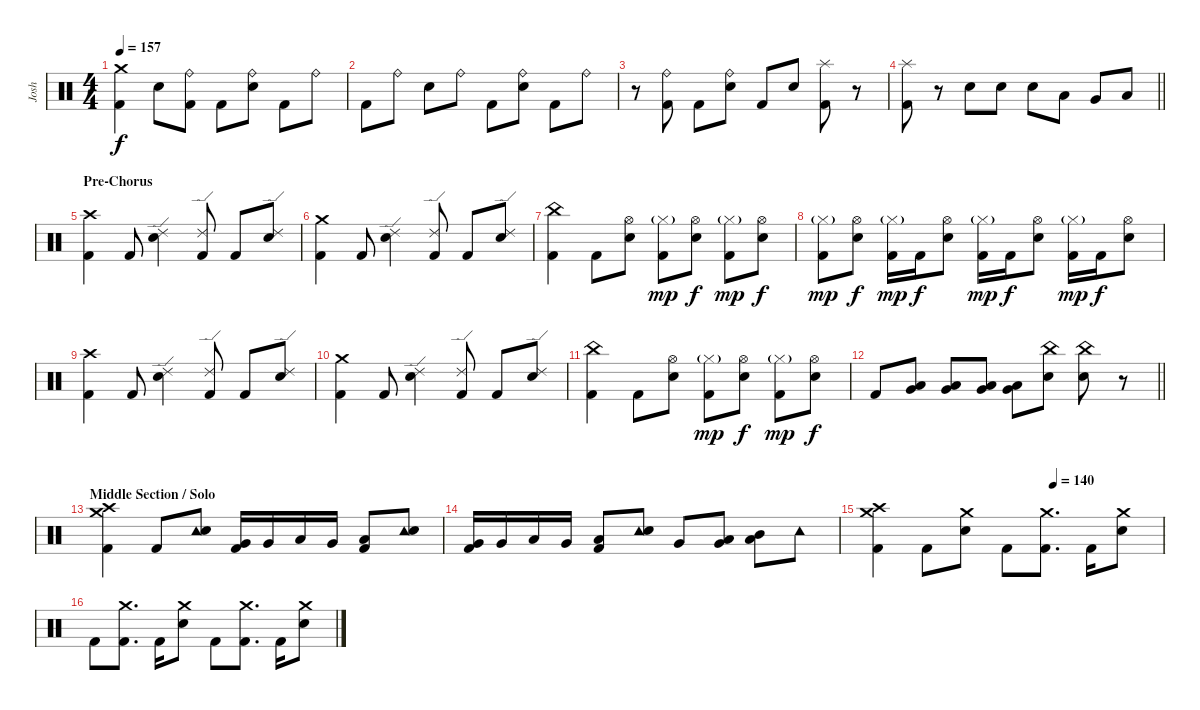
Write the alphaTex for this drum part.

\track ("Josh" "Josh") {instrument percussion}
\staff {score}
\articulation defaults
\ts (4 4)
\tempo 157
\clef neutral
\ks c
("Crash medium (hit)" "Kick (hit) 2").4{dy f} "Electric Snare (hit)".8 ("Ride (bell)" "Kick (hit) 2").8 "Kick (hit) 2".8 ("Ride (bell)" "Electric Snare (hit)").8 "Kick (hit) 2".8 "Ride (bell)".8 |
"Kick (hit) 2".8 "Ride (bell)".8 "Electric Snare (hit)".8 "Ride (bell)".8 "Kick (hit) 2".8 ("Ride (bell)" "Electric Snare (hit)").8 "Kick (hit) 2".8 "Ride (bell)".8 |
r.8 ("Ride (bell)" "Kick (hit) 2").8 "Kick (hit) 2".8 ("Ride (bell)" "Electric Snare (hit)").8 "Kick (hit) 2".8 "Electric Snare (hit)".8 ("Splash (hit)" "Kick (hit) 2").8 r.8 |
\barLineRight lightlight
("Splash (hit)" "Kick (hit) 2").8 r.8 "Electric Snare (hit)".8 "Electric Snare (hit)".8 "Electric Snare (hit)".8 "Low Tom (hit)".8 "Very Low Tom (hit)".8 "Low Floor Tom (hit)".8 |
\section ("" "Pre-Chorus")
("Crash high (hit)" "Kick (hit) 2").4 "Kick (hit) 2".8 ("Ride (edge) 2" "Electric Snare (hit)").4 ("Ride (edge) 2" "Kick (hit) 2").8 "Kick (hit) 2".8 ("Ride (edge) 2" "Electric Snare (hit)").8 |
("Crash medium (hit)" "Kick (hit) 2").4 "Kick (hit) 2".8 ("Ride (edge) 2" "Electric Snare (hit)").4 ("Ride (edge) 2" "Kick (hit) 2").8 "Kick (hit) 2".8 ("Ride (edge) 2" "Electric Snare (hit)").8 |
("China (hit)" "Kick (hit) 2").4 "Kick (hit) 2".8 ("Hi-Hat (open)" "Electric Snare (hit)").8 ("Hi-Hat (closed)"{g} "Kick (hit) 2").8{dy mp} ("Hi-Hat (open)" "Electric Snare (hit)").8{dy f} ("Hi-Hat (closed)"{g} "Kick (hit) 2").8{dy mp} ("Hi-Hat (open)" "Electric Snare (hit)").8{dy f} |
("Hi-Hat (closed)"{g} "Kick (hit) 2").8{dy mp} ("Hi-Hat (open)" "Electric Snare (hit)").8{dy f} ("Hi-Hat (closed)"{g} "Kick (hit) 2").16{dy mp} "Kick (hit) 2".16{dy f} ("Hi-Hat (open)" "Electric Snare (hit)").8 ("Hi-Hat (closed)"{g} "Kick (hit) 2").16{dy mp} "Kick (hit) 2".16{dy f} ("Hi-Hat (open)" "Electric Snare (hit)").8 ("Hi-Hat (closed)"{g} "Kick (hit) 2").16{dy mp} "Kick (hit) 2".16{dy f} ("Hi-Hat (open)" "Electric Snare (hit)").8 |
("Crash high (hit)" "Kick (hit) 2").4 "Kick (hit) 2".8 ("Ride (edge) 2" "Electric Snare (hit)").4 ("Ride (edge) 2" "Kick (hit) 2").8 "Kick (hit) 2".8 ("Ride (edge) 2" "Electric Snare (hit)").8 |
("Crash medium (hit)" "Kick (hit) 2").4 "Kick (hit) 2".8 ("Ride (edge) 2" "Electric Snare (hit)").4 ("Ride (edge) 2" "Kick (hit) 2").8 "Kick (hit) 2".8 ("Ride (edge) 2" "Electric Snare (hit)").8 |
("China (hit)" "Kick (hit) 2").4 "Kick (hit) 2".8 ("Hi-Hat (open)" "Electric Snare (hit)").8 ("Hi-Hat (closed)"{g} "Kick (hit) 2").8{dy mp} ("Hi-Hat (open)" "Electric Snare (hit)").8{dy f} ("Hi-Hat (closed)"{g} "Kick (hit) 2").8{dy mp} ("Hi-Hat (open)" "Electric Snare (hit)").8{dy f} |
\barLineRight lightlight "Kick (hit) 2".8
("Low Tom (hit)" "Very Low Tom (hit)").8 ("Low Tom (hit)" "Very Low Tom (hit)").8 ("Low Tom (hit)" "Very Low Tom (hit)").8 ("Low Tom (hit)" "Very Low Tom (hit)").8 ("China (hit)" "Electric Snare (hit)").8 ("China (hit)" "Electric Snare (hit)").8 r.8 |
\section ("" "Middle Section / Solo")
("Crash high (hit)" "Crash medium (hit)" "Kick (hit) 2").4 "Kick (hit) 2".8 ("Tambourine (hit)" "Electric Snare (hit)").8 ("Very Low Tom (hit)" "Kick (hit) 2").16 "Very Low Tom (hit)".16 "Low Tom (hit)".16 "Very Low Tom (hit)".16 ("Low Floor Tom (hit)" "Kick (hit) 2").8 ("Tambourine (hit)" "Electric Snare (hit)").8 |
("Very Low Tom (hit)" "Kick (hit) 2").16 "Very Low Tom (hit)".16 "Low Tom (hit)".16 "Very Low Tom (hit)".16 ("Low Floor Tom (hit)" "Kick (hit) 2").8 ("Tambourine (hit)" "Electric Snare (hit)").8 "Very Low Tom (hit)".8 ("Low Tom (hit)" "Very Low Tom (hit)").8 ("Mid Tom (hit)" "Low Tom (hit)").8 "Tambourine (hit)".8 |
\tempo (140 0.625)
("Crash high (hit)" "Crash medium (hit)" "Kick (hit) 2").4 "Kick (hit) 2".8 ("Crash medium (hit)" "Electric Snare (hit)").8 "Kick (hit) 2".8 ("Crash medium (hit)" "Kick (hit) 2").8{d} "Kick (hit) 2".16 ("Crash medium (hit)" "Electric Snare (hit)").8 |
"Kick (hit) 2".8 ("Crash medium (hit)" "Kick (hit) 2").8{d} "Kick (hit) 2".16 ("Crash medium (hit)" "Electric Snare (hit)").8 "Kick (hit) 2".8 ("Crash medium (hit)" "Kick (hit) 2").8{d} "Kick (hit) 2".16 ("Crash medium (hit)" "Electric Snare (hit)").8
